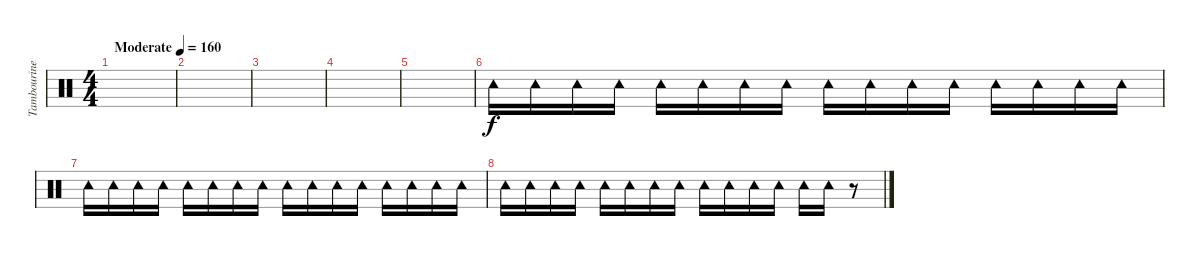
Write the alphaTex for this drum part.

\track ("Tambourine" "Tambourine") {instrument percussion}
\staff {score}
\articulation defaults
\ts (4 4)
\tempo (160 "Moderate")
\clef neutral
\ks c
|
|
|
|
|
"Tambourine (hit)".16 "Tambourine (hit)".16 "Tambourine (hit)".16 "Tambourine (hit)".16 "Tambourine (hit)".16 "Tambourine (hit)".16 "Tambourine (hit)".16 "Tambourine (hit)".16 "Tambourine (hit)".16 "Tambourine (hit)".16 "Tambourine (hit)".16 "Tambourine (hit)".16 "Tambourine (hit)".16 "Tambourine (hit)".16 "Tambourine (hit)".16 "Tambourine (hit)".16 |
"Tambourine (hit)".16 "Tambourine (hit)".16 "Tambourine (hit)".16 "Tambourine (hit)".16 "Tambourine (hit)".16 "Tambourine (hit)".16 "Tambourine (hit)".16 "Tambourine (hit)".16 "Tambourine (hit)".16 "Tambourine (hit)".16 "Tambourine (hit)".16 "Tambourine (hit)".16 "Tambourine (hit)".16 "Tambourine (hit)".16 "Tambourine (hit)".16 "Tambourine (hit)".16 |
"Tambourine (hit)".16 "Tambourine (hit)".16 "Tambourine (hit)".16 "Tambourine (hit)".16 "Tambourine (hit)".16 "Tambourine (hit)".16 "Tambourine (hit)".16 "Tambourine (hit)".16 "Tambourine (hit)".16 "Tambourine (hit)".16 "Tambourine (hit)".16 "Tambourine (hit)".16 "Tambourine (hit)".16 "Tambourine (hit)".16 r.8
